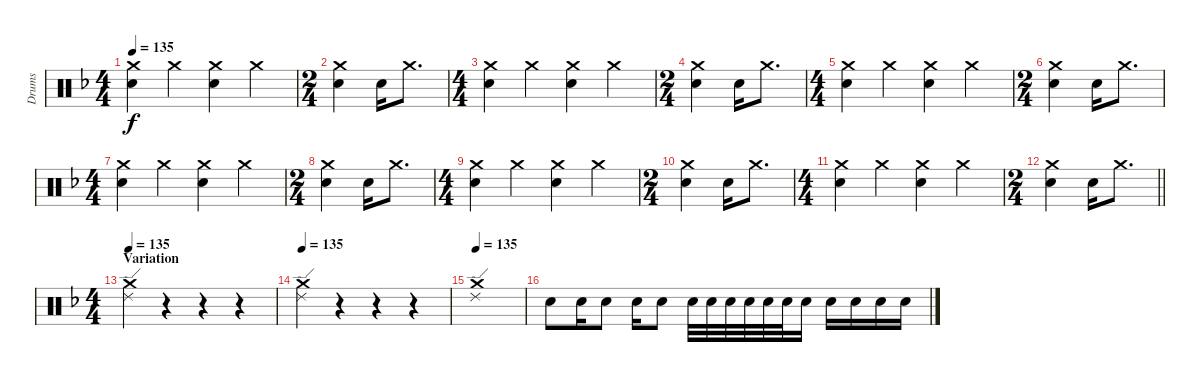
\track ("Drums" "Drums") {instrument percussion}
\staff {score}
\articulation defaults
\ts (4 4)
\tempo 135
\clef neutral
\ks dminor
("Crash medium (hit)" "Snare (hit) 2").4{dy f} "Crash medium (hit)".4 ("Crash medium (hit)" "Snare (hit) 2").4 "Crash medium (hit)".4 |
\ts (2 4)
("Crash medium (hit)" "Snare (hit) 2").4 "Snare (hit) 2".16 "Crash medium (hit)".8{d} |
\ts (4 4)
("Crash medium (hit)" "Snare (hit) 2").4 "Crash medium (hit)".4 ("Crash medium (hit)" "Snare (hit) 2").4 "Crash medium (hit)".4 |
\ts (2 4)
("Crash medium (hit)" "Snare (hit) 2").4 "Snare (hit) 2".16 "Crash medium (hit)".8{d} |
\ts (4 4)
("Crash medium (hit)" "Snare (hit) 2").4 "Crash medium (hit)".4 ("Crash medium (hit)" "Snare (hit) 2").4 "Crash medium (hit)".4 |
\ts (2 4)
("Crash medium (hit)" "Snare (hit) 2").4 "Snare (hit) 2".16 "Crash medium (hit)".8{d} |
\ts (4 4)
("Crash medium (hit)" "Snare (hit) 2").4 "Crash medium (hit)".4 ("Crash medium (hit)" "Snare (hit) 2").4 "Crash medium (hit)".4 |
\ts (2 4)
("Crash medium (hit)" "Snare (hit) 2").4 "Snare (hit) 2".16 "Crash medium (hit)".8{d} |
\ts (4 4)
("Crash medium (hit)" "Snare (hit) 2").4 "Crash medium (hit)".4 ("Crash medium (hit)" "Snare (hit) 2").4 "Crash medium (hit)".4 |
\ts (2 4)
("Crash medium (hit)" "Snare (hit) 2").4 "Snare (hit) 2".16 "Crash medium (hit)".8{d} |
\ts (4 4)
("Crash medium (hit)" "Snare (hit) 2").4 "Crash medium (hit)".4 ("Crash medium (hit)" "Snare (hit) 2").4 "Crash medium (hit)".4 |
\ts (2 4)
\barLineRight lightlight
("Crash medium (hit)" "Snare (hit) 2").4 "Snare (hit) 2".16 "Crash medium (hit)".8{d} |
\ts (4 4)
\section ("" "Variation")
\tempo 135
("Ride (edge) 2" "Crash medium (hit)").4 r.4 r.4 r.4 |
\tempo 135
("Ride (edge) 2" "Crash medium (hit)").4 r.4 r.4 r.4 |
\tempo 135
("Ride (edge) 2" "Crash medium (hit)").1 |
"Snare (hit) 2".8 "Snare (hit) 2".16 "Snare (hit) 2".8 "Snare (hit) 2".16 "Snare (hit) 2".8 "Snare (hit) 2".32 "Snare (hit) 2".32 "Snare (hit) 2".32 "Snare (hit) 2".32 "Snare (hit) 2".32 "Snare (hit) 2".32 "Snare (hit) 2".16 "Snare (hit) 2".16 "Snare (hit) 2".16 "Snare (hit) 2".16 "Snare (hit) 2".16
